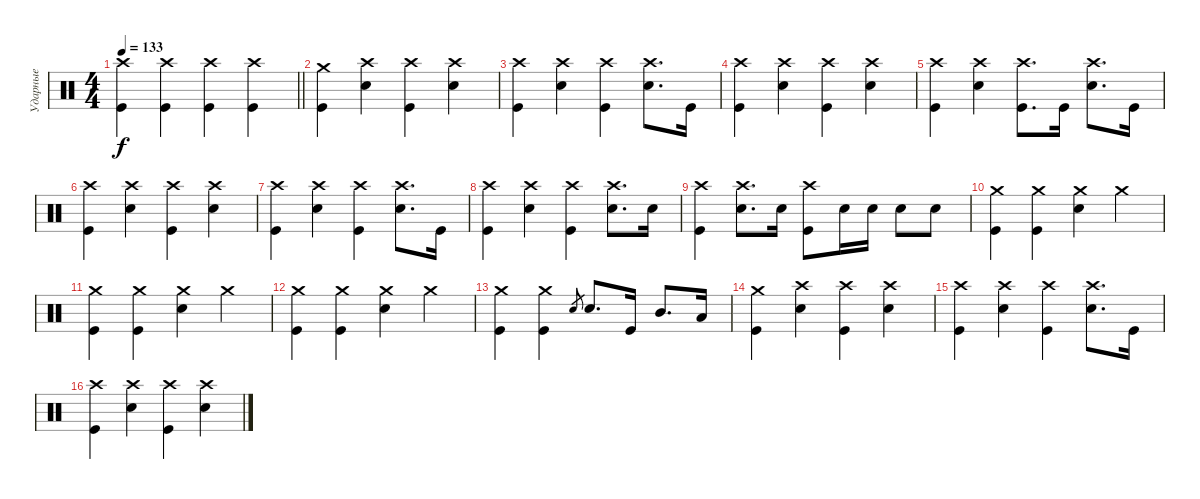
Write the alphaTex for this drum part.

\track ("Ударные" "Ударные") {instrument percussion}
\staff {score}
\articulation defaults
\ts (4 4)
\tempo 133
\clef neutral
\barLineRight lightlight
\ks c
("Crash high (hit)" "Kick (hit)").4{dy f} ("Crash high (hit)" "Kick (hit)").4 ("Crash high (hit)" "Kick (hit)").4 ("Crash high (hit)" "Kick (hit)").4 |
("Crash medium (hit)" "Kick (hit)").4 ("Crash high (hit)" "Electric Snare (hit)").4 ("Crash high (hit)" "Kick (hit)").4 ("Crash high (hit)" "Electric Snare (hit)").4 |
("Crash high (hit)" "Kick (hit)").4 ("Crash high (hit)" "Electric Snare (hit)").4 ("Crash high (hit)" "Kick (hit)").4 ("Crash high (hit)" "Electric Snare (hit)").8{d} "Kick (hit)".16 |
("Crash high (hit)" "Kick (hit)").4 ("Crash high (hit)" "Electric Snare (hit)").4 ("Crash high (hit)" "Kick (hit)").4 ("Crash high (hit)" "Electric Snare (hit)").4 |
("Crash high (hit)" "Kick (hit)").4 ("Crash high (hit)" "Electric Snare (hit)").4 ("Crash high (hit)" "Kick (hit)").8{d} "Kick (hit)".16 ("Crash high (hit)" "Electric Snare (hit)").8{d} "Kick (hit)".16 |
("Crash high (hit)" "Kick (hit)").4 ("Crash high (hit)" "Electric Snare (hit)").4 ("Crash high (hit)" "Kick (hit)").4 ("Crash high (hit)" "Electric Snare (hit)").4 |
("Crash high (hit)" "Kick (hit)").4 ("Crash high (hit)" "Electric Snare (hit)").4 ("Crash high (hit)" "Kick (hit)").4 ("Crash high (hit)" "Electric Snare (hit)").8{d} "Kick (hit)".16 |
("Crash high (hit)" "Kick (hit)").4 ("Crash high (hit)" "Electric Snare (hit)").4 ("Crash high (hit)" "Kick (hit)").4 ("Crash high (hit)" "Electric Snare (hit)").8{d} "Electric Snare (hit)".16 |
("Crash high (hit)" "Kick (hit)").4 ("Crash high (hit)" "Electric Snare (hit)").8{d} "Electric Snare (hit)".16 ("Crash high (hit)" "Kick (hit)").8 "Electric Snare (hit)".16 "Electric Snare (hit)".16 "Electric Snare (hit)".8 "Electric Snare (hit)".8 |
("Crash medium (hit)" "Kick (hit)").4 ("Crash medium (hit)" "Kick (hit)").4 ("Crash medium (hit)" "Electric Snare (hit)").4 "Crash medium (hit)".4 |
("Crash medium (hit)" "Kick (hit)").4 ("Crash medium (hit)" "Kick (hit)").4 ("Crash medium (hit)" "Electric Snare (hit)").4 "Crash medium (hit)".4 |
("Crash medium (hit)" "Kick (hit)").4 ("Crash medium (hit)" "Kick (hit)").4 ("Crash medium (hit)" "Electric Snare (hit)").4 "Crash medium (hit)".4 |
("Crash medium (hit)" "Kick (hit)").4 ("Crash medium (hit)" "Kick (hit)").4 "Electric Snare (hit)".8{gr} "Electric Snare (hit)".8{d} "Kick (hit)".16 "Mid Tom (hit)".8{d} "Low Tom (hit)".16 |
("Crash medium (hit)" "Kick (hit)").4 ("Crash high (hit)" "Electric Snare (hit)").4 ("Crash high (hit)" "Kick (hit)").4 ("Crash high (hit)" "Electric Snare (hit)").4 |
("Crash high (hit)" "Kick (hit)").4 ("Crash high (hit)" "Electric Snare (hit)").4 ("Crash high (hit)" "Kick (hit)").4 ("Crash high (hit)" "Electric Snare (hit)").8{d} "Kick (hit)".16 |
("Crash high (hit)" "Kick (hit)").4 ("Crash high (hit)" "Electric Snare (hit)").4 ("Crash high (hit)" "Kick (hit)").4 ("Crash high (hit)" "Electric Snare (hit)").4
